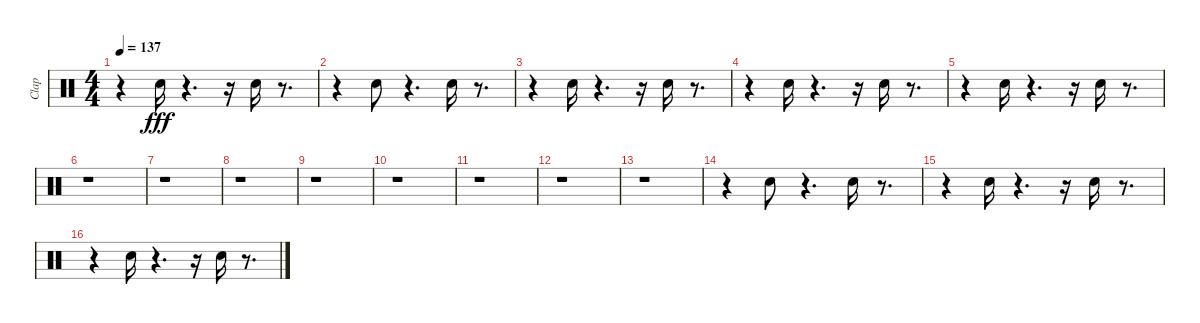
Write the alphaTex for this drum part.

\track ("Clap" "Clap") {instrument percussion}
\staff {score}
\articulation defaults
\ts (4 4)
\tempo 137
\clef neutral
\ks c
r.4{dy fff} "Hand Clap (hit)".16 r.4{d} r.16 "Hand Clap (hit)".16 r.8{d} |
r.4 "Hand Clap (hit)".8 r.4{d} "Hand Clap (hit)".16 r.8{d} |
r.4 "Hand Clap (hit)".16 r.4{d} r.16 "Hand Clap (hit)".16 r.8{d} |
r.4 "Hand Clap (hit)".16 r.4{d} r.16 "Hand Clap (hit)".16 r.8{d} |
r.4 "Hand Clap (hit)".16 r.4{d} r.16 "Hand Clap (hit)".16 r.8{d} |
r.1 |
r.1 |
r.1 |
r.1 |
r.1 |
r.1 |
r.1 |
r.1 |
r.4 "Hand Clap (hit)".8 r.4{d} "Hand Clap (hit)".16 r.8{d} |
r.4 "Hand Clap (hit)".16 r.4{d} r.16 "Hand Clap (hit)".16 r.8{d} |
r.4 "Hand Clap (hit)".16 r.4{d} r.16 "Hand Clap (hit)".16 r.8{d}
